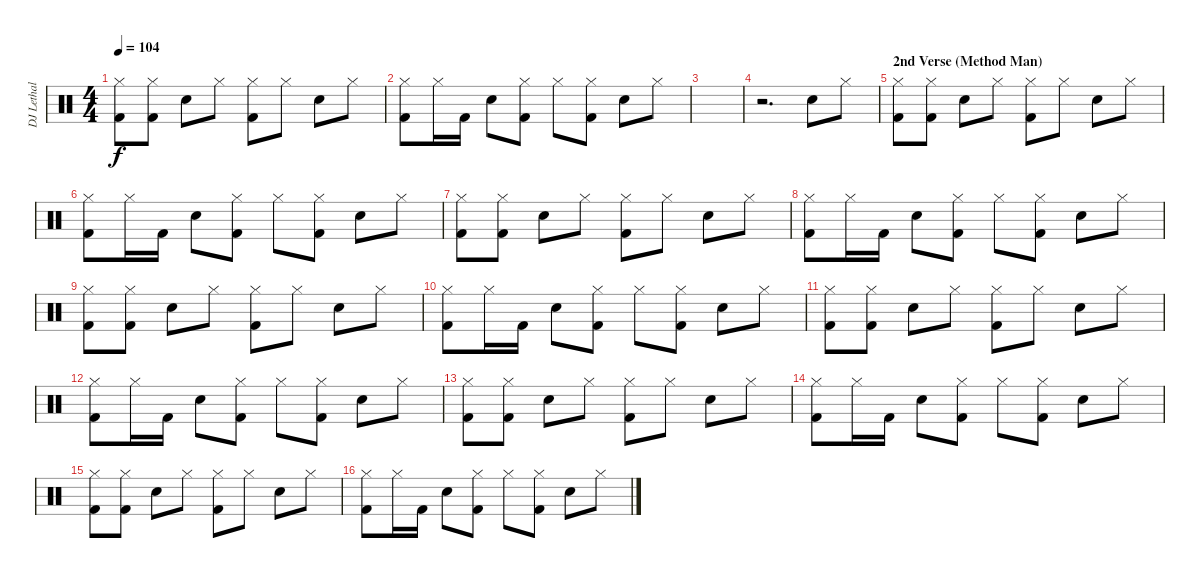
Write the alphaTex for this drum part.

\track ("DJ Lethal - Sample Drums" "DJ Lethal ") {instrument percussion}
\staff {score}
\articulation defaults
\ts (4 4)
\tempo 104
\clef neutral
\ks c
("Hi-Hat (closed)" "Kick (hit) 2").8{dy f} ("Hi-Hat (closed)" "Kick (hit) 2").8 "Electric Snare (hit)".8 "Hi-Hat (closed)".8 ("Hi-Hat (closed)" "Kick (hit) 2").8 "Hi-Hat (closed)".8 "Electric Snare (hit)".8 "Hi-Hat (closed)".8 |
("Hi-Hat (closed)" "Kick (hit) 2").8 "Hi-Hat (closed)".16 "Kick (hit) 2".16 "Electric Snare (hit)".8 ("Hi-Hat (closed)" "Kick (hit) 2").8 "Hi-Hat (closed)".8 ("Hi-Hat (closed)" "Kick (hit) 2").8 "Electric Snare (hit)".8 "Hi-Hat (closed)".8 |
|
r.2{d} "Electric Snare (hit)".8 "Hi-Hat (closed)".8 |
\section ("" "2nd Verse (Method Man)")
("Hi-Hat (closed)" "Kick (hit) 2").8 ("Hi-Hat (closed)" "Kick (hit) 2").8 "Electric Snare (hit)".8 "Hi-Hat (closed)".8 ("Hi-Hat (closed)" "Kick (hit) 2").8 "Hi-Hat (closed)".8 "Electric Snare (hit)".8 "Hi-Hat (closed)".8 |
("Hi-Hat (closed)" "Kick (hit) 2").8 "Hi-Hat (closed)".16 "Kick (hit) 2".16 "Electric Snare (hit)".8 ("Hi-Hat (closed)" "Kick (hit) 2").8 "Hi-Hat (closed)".8 ("Hi-Hat (closed)" "Kick (hit) 2").8 "Electric Snare (hit)".8 "Hi-Hat (closed)".8 |
("Hi-Hat (closed)" "Kick (hit) 2").8 ("Hi-Hat (closed)" "Kick (hit) 2").8 "Electric Snare (hit)".8 "Hi-Hat (closed)".8 ("Hi-Hat (closed)" "Kick (hit) 2").8 "Hi-Hat (closed)".8 "Electric Snare (hit)".8 "Hi-Hat (closed)".8 |
("Hi-Hat (closed)" "Kick (hit) 2").8 "Hi-Hat (closed)".16 "Kick (hit) 2".16 "Electric Snare (hit)".8 ("Hi-Hat (closed)" "Kick (hit) 2").8 "Hi-Hat (closed)".8 ("Hi-Hat (closed)" "Kick (hit) 2").8 "Electric Snare (hit)".8 "Hi-Hat (closed)".8 |
("Hi-Hat (closed)" "Kick (hit) 2").8 ("Hi-Hat (closed)" "Kick (hit) 2").8 "Electric Snare (hit)".8 "Hi-Hat (closed)".8 ("Hi-Hat (closed)" "Kick (hit) 2").8 "Hi-Hat (closed)".8 "Electric Snare (hit)".8 "Hi-Hat (closed)".8 |
("Hi-Hat (closed)" "Kick (hit) 2").8 "Hi-Hat (closed)".16 "Kick (hit) 2".16 "Electric Snare (hit)".8 ("Hi-Hat (closed)" "Kick (hit) 2").8 "Hi-Hat (closed)".8 ("Hi-Hat (closed)" "Kick (hit) 2").8 "Electric Snare (hit)".8 "Hi-Hat (closed)".8 |
("Hi-Hat (closed)" "Kick (hit) 2").8 ("Hi-Hat (closed)" "Kick (hit) 2").8 "Electric Snare (hit)".8 "Hi-Hat (closed)".8 ("Hi-Hat (closed)" "Kick (hit) 2").8 "Hi-Hat (closed)".8 "Electric Snare (hit)".8 "Hi-Hat (closed)".8 |
("Hi-Hat (closed)" "Kick (hit) 2").8 "Hi-Hat (closed)".16 "Kick (hit) 2".16 "Electric Snare (hit)".8 ("Hi-Hat (closed)" "Kick (hit) 2").8 "Hi-Hat (closed)".8 ("Hi-Hat (closed)" "Kick (hit) 2").8 "Electric Snare (hit)".8 "Hi-Hat (closed)".8 |
("Hi-Hat (closed)" "Kick (hit) 2").8 ("Hi-Hat (closed)" "Kick (hit) 2").8 "Electric Snare (hit)".8 "Hi-Hat (closed)".8 ("Hi-Hat (closed)" "Kick (hit) 2").8 "Hi-Hat (closed)".8 "Electric Snare (hit)".8 "Hi-Hat (closed)".8 |
("Hi-Hat (closed)" "Kick (hit) 2").8 "Hi-Hat (closed)".16 "Kick (hit) 2".16 "Electric Snare (hit)".8 ("Hi-Hat (closed)" "Kick (hit) 2").8 "Hi-Hat (closed)".8 ("Hi-Hat (closed)" "Kick (hit) 2").8 "Electric Snare (hit)".8 "Hi-Hat (closed)".8 |
("Hi-Hat (closed)" "Kick (hit) 2").8 ("Hi-Hat (closed)" "Kick (hit) 2").8 "Electric Snare (hit)".8 "Hi-Hat (closed)".8 ("Hi-Hat (closed)" "Kick (hit) 2").8 "Hi-Hat (closed)".8 "Electric Snare (hit)".8 "Hi-Hat (closed)".8 |
("Hi-Hat (closed)" "Kick (hit) 2").8 "Hi-Hat (closed)".16 "Kick (hit) 2".16 "Electric Snare (hit)".8 ("Hi-Hat (closed)" "Kick (hit) 2").8 "Hi-Hat (closed)".8 ("Hi-Hat (closed)" "Kick (hit) 2").8 "Electric Snare (hit)".8 "Hi-Hat (closed)".8
